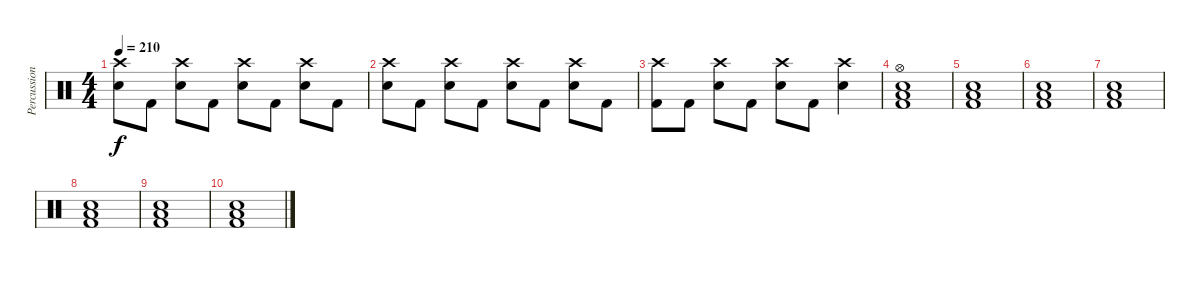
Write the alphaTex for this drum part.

\track ("Percussion" "Percussion") {instrument percussion}
\staff {score}
\articulation defaults
\ts (4 4)
\tempo 210
\clef neutral
\ks c
("Crash high (hit)" "Electric Snare (hit)").8{dy f} "Kick (hit) 2".8 ("Crash high (hit)" "Electric Snare (hit)").8 "Kick (hit) 2".8 ("Crash high (hit)" "Electric Snare (hit)").8 "Kick (hit) 2".8 ("Crash high (hit)" "Electric Snare (hit)").8 "Kick (hit) 2".8 |
("Crash high (hit)" "Electric Snare (hit)").8 "Kick (hit) 2".8 ("Crash high (hit)" "Electric Snare (hit)").8 "Kick (hit) 2".8 ("Crash high (hit)" "Electric Snare (hit)").8 "Kick (hit) 2".8 ("Crash high (hit)" "Electric Snare (hit)").8 "Kick (hit) 2".8 |
("Crash high (hit)" "Kick (hit) 2").8 "Kick (hit) 2".8 ("Crash high (hit)" "Electric Snare (hit)").8 "Kick (hit) 2".8 ("Crash high (hit)" "Electric Snare (hit)").8 "Kick (hit) 2".8 ("Crash high (hit)" "Electric Snare (hit)").4 |
("Low Floor Tom (hit)" "Hi-Hat (open)" "Electric Snare (hit)" "Kick (hit) 2").1 |
("Low Floor Tom (hit)" "Electric Snare (hit)" "Kick (hit) 2").1 |
("Low Floor Tom (hit)" "Electric Snare (hit)" "Kick (hit) 2").1 |
("Low Floor Tom (hit)" "Electric Snare (hit)" "Kick (hit) 2").1 |
("Low Floor Tom (hit)" "Electric Snare (hit)" "Kick (hit) 2").1 |
("Low Floor Tom (hit)" "Electric Snare (hit)" "Kick (hit) 2").1 |
("Low Floor Tom (hit)" "Electric Snare (hit)" "Kick (hit) 2").1
